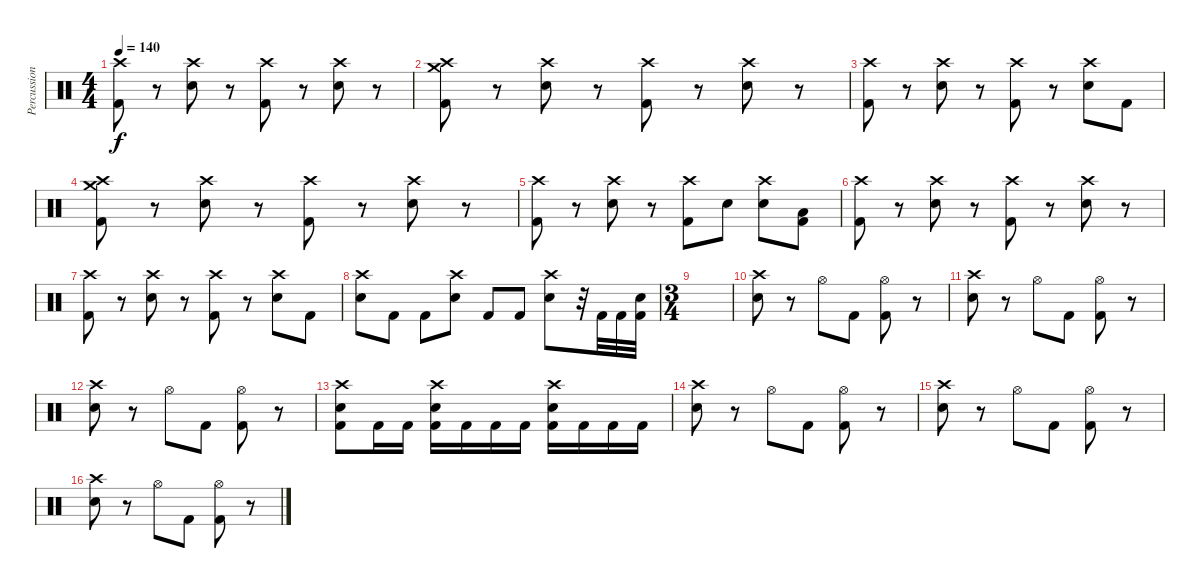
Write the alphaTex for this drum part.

\track ("Percussion" "Percussion") {instrument percussion}
\staff {score}
\articulation defaults
\ts (4 4)
\tempo 140
\clef neutral
\ks c
("Crash high (hit)" "Kick (hit) 2").8{dy f} r.8 ("Electric Snare (hit)" "Crash high (hit)").8 r.8 ("Crash high (hit)" "Kick (hit) 2").8 r.8 ("Electric Snare (hit)" "Crash high (hit)").8 r.8 |
("Crash high (hit)" "Crash medium (hit)" "Kick (hit) 2").8 r.8 ("Electric Snare (hit)" "Crash high (hit)").8 r.8 ("Crash high (hit)" "Kick (hit) 2").8 r.8 ("Electric Snare (hit)" "Crash high (hit)").8 r.8 |
("Crash high (hit)" "Kick (hit) 2").8 r.8 ("Electric Snare (hit)" "Crash high (hit)").8 r.8 ("Crash high (hit)" "Kick (hit) 2").8 r.8 ("Electric Snare (hit)" "Crash high (hit)").8 "Kick (hit) 2".8 |
("Crash high (hit)" "Crash medium (hit)" "Kick (hit) 2").8 r.8 ("Electric Snare (hit)" "Crash high (hit)").8 r.8 ("Crash high (hit)" "Kick (hit) 2").8 r.8 ("Electric Snare (hit)" "Crash high (hit)").8 r.8 |
("Crash high (hit)" "Kick (hit) 2").8 r.8 ("Electric Snare (hit)" "Crash high (hit)").8 r.8 ("Crash high (hit)" "Kick (hit) 2").8 "Electric Snare (hit)".8 ("Electric Snare (hit)" "Crash high (hit)").8 ("Low Floor Tom (hit)" "Kick (hit) 2").8 |
("Crash high (hit)" "Kick (hit) 2").8 r.8 ("Electric Snare (hit)" "Crash high (hit)").8 r.8 ("Crash high (hit)" "Kick (hit) 2").8 r.8 ("Electric Snare (hit)" "Crash high (hit)").8 r.8 |
("Crash high (hit)" "Kick (hit) 2").8 r.8 ("Electric Snare (hit)" "Crash high (hit)").8 r.8 ("Crash high (hit)" "Kick (hit) 2").8 r.8 ("Electric Snare (hit)" "Crash high (hit)").8 "Kick (hit) 2".8 |
("Crash high (hit)" "Electric Snare (hit)").8 "Kick (hit) 2".8 "Kick (hit) 2".8 ("Crash high (hit)" "Electric Snare (hit)").8 "Kick (hit) 2".8 "Kick (hit) 2".8 ("Crash high (hit)" "Electric Snare (hit)").8 r.32 "Kick (hit) 2".32 "Kick (hit) 2".32 ("Electric Snare (hit)" "Kick (hit) 2").32 |
\ts (3 4)
|
("Crash high (hit)" "Electric Snare (hit)").8 r.8 "Hi-Hat (open)".8 "Kick (hit) 2".8 ("Hi-Hat (open)" "Kick (hit) 2").8 r.8 |
("Crash high (hit)" "Electric Snare (hit)").8 r.8 "Hi-Hat (open)".8 "Kick (hit) 2".8 ("Hi-Hat (open)" "Kick (hit) 2").8 r.8 |
("Crash high (hit)" "Electric Snare (hit)").8 r.8 "Hi-Hat (open)".8 "Kick (hit) 2".8 ("Hi-Hat (open)" "Kick (hit) 2").8 r.8 |
("Crash high (hit)" "Electric Snare (hit)" "Kick (hit) 2").8 "Kick (hit) 2".16 "Kick (hit) 2".16 ("Crash high (hit)" "Electric Snare (hit)" "Kick (hit) 2").16 "Kick (hit) 2".16 "Kick (hit) 2".16 "Kick (hit) 2".16 ("Crash high (hit)" "Electric Snare (hit)" "Kick (hit) 2").16 "Kick (hit) 2".16 "Kick (hit) 2".16 "Kick (hit) 2".16 |
("Crash high (hit)" "Electric Snare (hit)").8 r.8 "Hi-Hat (open)".8 "Kick (hit) 2".8 ("Hi-Hat (open)" "Kick (hit) 2").8 r.8 |
("Crash high (hit)" "Electric Snare (hit)").8 r.8 "Hi-Hat (open)".8 "Kick (hit) 2".8 ("Hi-Hat (open)" "Kick (hit) 2").8 r.8 |
("Crash high (hit)" "Electric Snare (hit)").8 r.8 "Hi-Hat (open)".8 "Kick (hit) 2".8 ("Hi-Hat (open)" "Kick (hit) 2").8 r.8
